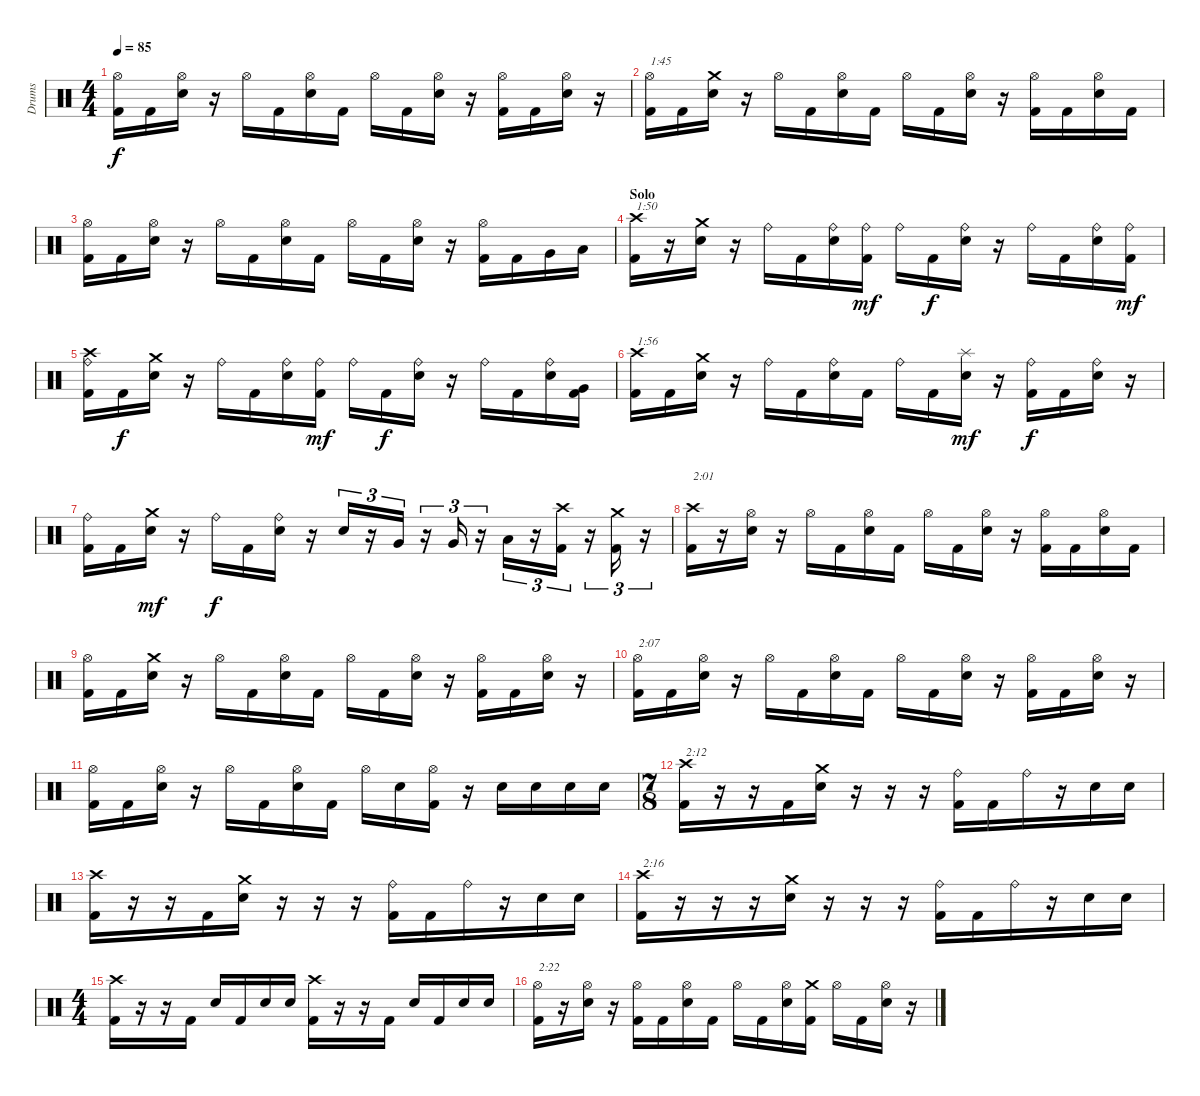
\track ("Drums" "Drums") {instrument percussion}
\staff {score}
\articulation defaults
\ts (4 4)
\tempo 85
\clef neutral
\ks c
("Hi-Hat (open)" "Kick (hit) 2").16{dy f} "Kick (hit) 2".16 ("Hi-Hat (open)" "Electric Snare (hit)").16 r.16 "Hi-Hat (open)".16 "Kick (hit) 2".16 ("Hi-Hat (open)" "Electric Snare (hit)").16 "Kick (hit) 2".16 "Hi-Hat (open)".16 "Kick (hit) 2".16 ("Hi-Hat (open)" "Electric Snare (hit)").16 r.16 ("Hi-Hat (open)" "Kick (hit) 2").16 "Kick (hit) 2".16 ("Hi-Hat (open)" "Electric Snare (hit)").16 r.16 |
("Hi-Hat (open)" "Kick (hit) 2").16{txt "1:45"} "Kick (hit) 2".16 ("Crash medium (hit)" "Electric Snare (hit)").16 r.16 "Hi-Hat (open)".16 "Kick (hit) 2".16 ("Hi-Hat (open)" "Electric Snare (hit)").16 "Kick (hit) 2".16 "Hi-Hat (open)".16 "Kick (hit) 2".16 ("Hi-Hat (open)" "Electric Snare (hit)").16 r.16 ("Hi-Hat (open)" "Kick (hit) 2").16 "Kick (hit) 2".16 ("Hi-Hat (open)" "Electric Snare (hit)").16 "Kick (hit) 2".16 |
("Hi-Hat (open)" "Kick (hit) 2").16 "Kick (hit) 2".16 ("Hi-Hat (open)" "Electric Snare (hit)").16 r.16 "Hi-Hat (open)".16 "Kick (hit) 2".16 ("Hi-Hat (open)" "Electric Snare (hit)").16 "Kick (hit) 2".16 "Hi-Hat (open)".16 "Kick (hit) 2".16 ("Hi-Hat (open)" "Electric Snare (hit)").16 r.16 ("Hi-Hat (open)" "Kick (hit) 2").16 "Kick (hit) 2".16 "Very Low Tom (hit)".16 "Low Floor Tom (hit)".16 |
\section ("" "Solo")
("Crash high (hit)" "Kick (hit) 2").16{txt "1:50"} r.16 ("Crash medium (hit)" "Electric Snare (hit)").16 r.16 "Ride (bell)".16 "Kick (hit) 2".16 ("Ride (bell)" "Electric Snare (hit)").16 ("Ride (bell)" "Kick (hit) 2").16{dy mf} "Ride (bell)".16 "Kick (hit) 2".16{dy f} ("Ride (bell)" "Electric Snare (hit)").16 r.16 "Ride (bell)".16 "Kick (hit) 2".16 ("Ride (bell)" "Electric Snare (hit)").16 ("Ride (bell)" "Kick (hit) 2").16{dy mf} |
("Crash high (hit)" "Ride (bell)" "Kick (hit) 2").16 "Kick (hit) 2".16{dy f} ("Crash medium (hit)" "Electric Snare (hit)").16 r.16 "Ride (bell)".16 "Kick (hit) 2".16 ("Ride (bell)" "Electric Snare (hit)").16 ("Ride (bell)" "Kick (hit) 2").16{dy mf} "Ride (bell)".16 "Kick (hit) 2".16{dy f} ("Ride (bell)" "Electric Snare (hit)").16 r.16 "Ride (bell)".16 "Kick (hit) 2".16 ("Ride (bell)" "Electric Snare (hit)").16 ("Very Low Tom (hit)" "Kick (hit) 2").16 |
("Crash high (hit)" "Kick (hit) 2").16{txt "1:56"} "Kick (hit) 2".16 ("Crash medium (hit)" "Electric Snare (hit)").16 r.16 "Ride (bell)".16 "Kick (hit) 2".16 ("Ride (bell)" "Electric Snare (hit)").16 "Kick (hit) 2".16 "Ride (bell)".16 "Kick (hit) 2".16 ("Splash (hit)" "Electric Snare (hit)").16{dy mf} r.16 ("Ride (bell)" "Kick (hit) 2").16{dy f} "Kick (hit) 2".16 ("Ride (bell)" "Electric Snare (hit)").16 r.16 |
("Ride (bell)" "Kick (hit) 2").16 "Kick (hit) 2".16 ("Crash medium (hit)" "Electric Snare (hit)").16{dy mf} r.16 "Ride (bell)".16{dy f} "Kick (hit) 2".16 ("Ride (bell)" "Electric Snare (hit)").16 r.16 "Electric Snare (hit)".16{tu (3 2)} r.16{tu (3 2)} "Very Low Tom (hit)".16{tu (3 2)} r.16{tu (3 2)} "Very Low Tom (hit)".16{tu (3 2)} r.16{tu (3 2)} "Low Floor Tom (hit)".16{tu (3 2)} r.16{tu (3 2)} ("Crash high (hit)" "Kick (hit) 2").16{tu (3 2)} r.16{tu (3 2)} ("Crash medium (hit)" "Kick (hit) 2").16{tu (3 2)} r.16{tu (3 2)} |
("Crash high (hit)" "Kick (hit) 2").16{txt "2:01"} r.16 ("Hi-Hat (open)" "Electric Snare (hit)").16 r.16 "Hi-Hat (open)".16 "Kick (hit) 2".16 ("Hi-Hat (open)" "Electric Snare (hit)").16 "Kick (hit) 2".16 "Hi-Hat (open)".16 "Kick (hit) 2".16 ("Hi-Hat (open)" "Electric Snare (hit)").16 r.16 ("Hi-Hat (open)" "Kick (hit) 2").16 "Kick (hit) 2".16 ("Hi-Hat (open)" "Electric Snare (hit)").16 "Kick (hit) 2".16 |
("Hi-Hat (open)" "Kick (hit) 2").16 "Kick (hit) 2".16 ("Crash medium (hit)" "Electric Snare (hit)").16 r.16 "Hi-Hat (open)".16 "Kick (hit) 2".16 ("Hi-Hat (open)" "Electric Snare (hit)").16 "Kick (hit) 2".16 "Hi-Hat (open)".16 "Kick (hit) 2".16 ("Hi-Hat (open)" "Electric Snare (hit)").16 r.16 ("Hi-Hat (open)" "Kick (hit) 2").16 "Kick (hit) 2".16 ("Hi-Hat (open)" "Electric Snare (hit)").16 r.16 |
("Hi-Hat (open)" "Kick (hit) 2").16{txt "2:07"} "Kick (hit) 2".16 ("Hi-Hat (open)" "Electric Snare (hit)").16 r.16 "Hi-Hat (open)".16 "Kick (hit) 2".16 ("Hi-Hat (open)" "Electric Snare (hit)").16 "Kick (hit) 2".16 "Hi-Hat (open)".16 "Kick (hit) 2".16 ("Hi-Hat (open)" "Electric Snare (hit)").16 r.16 ("Hi-Hat (open)" "Kick (hit) 2").16 "Kick (hit) 2".16 ("Hi-Hat (open)" "Electric Snare (hit)").16 r.16 |
("Hi-Hat (open)" "Kick (hit) 2").16 "Kick (hit) 2".16 ("Hi-Hat (open)" "Electric Snare (hit)").16 r.16 "Hi-Hat (open)".16 "Kick (hit) 2".16 ("Hi-Hat (open)" "Electric Snare (hit)").16 "Kick (hit) 2".16 "Hi-Hat (open)".16 "Electric Snare (hit)".16 ("Hi-Hat (open)" "Kick (hit) 2").16 r.16 "Electric Snare (hit)".16 "Electric Snare (hit)".16 "Electric Snare (hit)".16 "Electric Snare (hit)".16 |
\ts (7 8)
("Crash high (hit)" "Kick (hit) 2").16{txt "2:12"} r.16 r.16 "Kick (hit) 2".16 ("Crash medium (hit)" "Electric Snare (hit)").16 r.16 r.16 r.16 ("Ride (bell)" "Kick (hit) 2").16 "Kick (hit) 2".16 "Ride (bell)".16 r.16 "Electric Snare (hit)".16 "Electric Snare (hit)".16 |
("Crash high (hit)" "Kick (hit) 2").16 r.16 r.16 "Kick (hit) 2".16 ("Crash medium (hit)" "Electric Snare (hit)").16 r.16 r.16 r.16 ("Ride (bell)" "Kick (hit) 2").16 "Kick (hit) 2".16 "Ride (bell)".16 r.16 "Electric Snare (hit)".16 "Electric Snare (hit)".16 |
("Crash high (hit)" "Kick (hit) 2").16{txt "2:16"} r.16 r.16 r.16 ("Crash medium (hit)" "Electric Snare (hit)").16 r.16 r.16 r.16 ("Ride (bell)" "Kick (hit) 2").16 "Kick (hit) 2".16 "Ride (bell)".16 r.16 "Electric Snare (hit)".16 "Electric Snare (hit)".16 |
\ts (4 4)
("Crash high (hit)" "Kick (hit) 2").16 r.16 r.16 "Kick (hit) 2".16 "Electric Snare (hit)".16 "Kick (hit) 2".16 "Electric Snare (hit)".16 "Electric Snare (hit)".16 ("Crash high (hit)" "Kick (hit) 2").16 r.16 r.16 "Kick (hit) 2".16 "Electric Snare (hit)".16 "Kick (hit) 2".16 "Electric Snare (hit)".16 "Electric Snare (hit)".16 |
("Hi-Hat (open)" "Kick (hit) 2").16{txt "2:22"} r.16 ("Hi-Hat (open)" "Electric Snare (hit)").16 r.16 ("Hi-Hat (open)" "Kick (hit) 2").16 "Kick (hit) 2".16 ("Hi-Hat (open)" "Electric Snare (hit)").16 "Kick (hit) 2".16 "Hi-Hat (open)".16 "Kick (hit) 2".16 ("Hi-Hat (open)" "Electric Snare (hit)").16 ("Crash medium (hit)" "Kick (hit) 2").16 "Hi-Hat (open)".16 "Kick (hit) 2".16 ("Hi-Hat (open)" "Electric Snare (hit)").16 r.16
